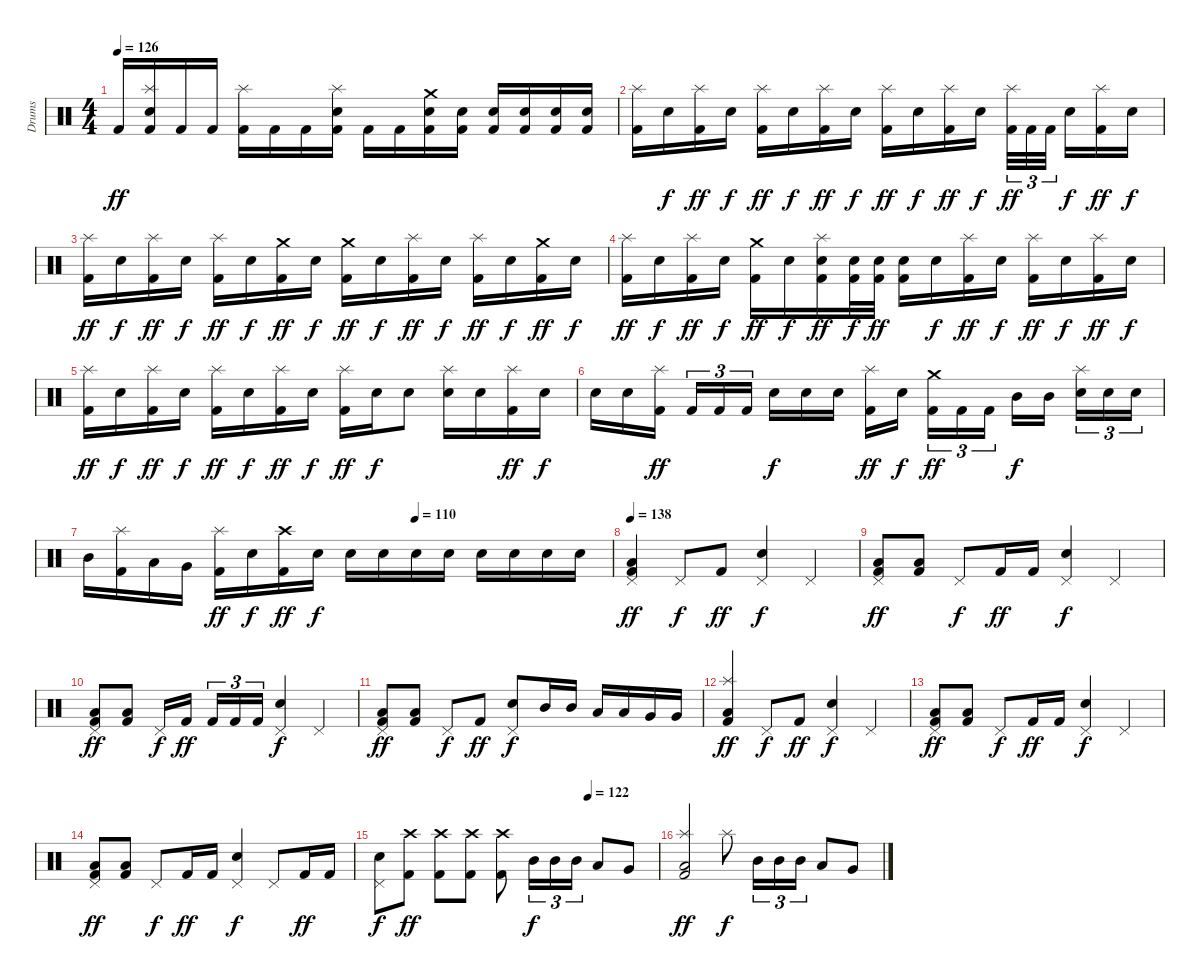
\track ("Drums" "Drums") {instrument percussion}
\staff {score}
\articulation defaults
\ts (4 4)
\tempo 126
\clef neutral
\ks c "Kick (hit) 2".16{dy ff}
("Splash (hit)" "Electric Snare (hit)" "Kick (hit) 2").16 "Kick (hit) 2".16 "Kick (hit) 2".16 ("Splash (hit)" "Kick (hit) 2").16 "Kick (hit) 2".16 "Kick (hit) 2".16 ("Splash (hit)" "Electric Snare (hit)" "Kick (hit) 2").16 "Kick (hit) 2".16 "Kick (hit) 2".16 ("Crash medium (hit)" "Electric Snare (hit)" "Kick (hit) 2").16 ("Electric Snare (hit)" "Kick (hit) 2").16 ("Electric Snare (hit)" "Kick (hit) 2").16 ("Electric Snare (hit)" "Kick (hit) 2").16 ("Electric Snare (hit)" "Kick (hit) 2").16 ("Electric Snare (hit)" "Kick (hit) 2").16 |
("Splash (hit)" "Kick (hit) 2").16 "Electric Snare (hit)".16{dy f} ("Splash (hit)" "Kick (hit) 2").16{dy ff} "Electric Snare (hit)".16{dy f} ("Splash (hit)" "Kick (hit) 2").16{dy ff} "Electric Snare (hit)".16{dy f} ("Splash (hit)" "Kick (hit) 2").16{dy ff} "Electric Snare (hit)".16{dy f} ("Splash (hit)" "Kick (hit) 2").16{dy ff} "Electric Snare (hit)".16{dy f} ("Splash (hit)" "Kick (hit) 2").16{dy ff} "Electric Snare (hit)".16{dy f} ("Splash (hit)" "Kick (hit) 2").32{tu (3 2) dy ff} "Kick (hit) 2".32{tu (3 2)} "Kick (hit) 2".32{tu (3 2)} "Electric Snare (hit)".16{dy f} ("Splash (hit)" "Kick (hit) 2").16{dy ff} "Electric Snare (hit)".16{dy f} |
("Splash (hit)" "Kick (hit) 2").16{dy ff} "Electric Snare (hit)".16{dy f} ("Splash (hit)" "Kick (hit) 2").16{dy ff} "Electric Snare (hit)".16{dy f} ("Splash (hit)" "Kick (hit) 2").16{dy ff} "Electric Snare (hit)".16{dy f} ("Crash medium (hit)" "Kick (hit) 2").16{dy ff} "Electric Snare (hit)".16{dy f} ("Crash medium (hit)" "Kick (hit) 2").16{dy ff} "Electric Snare (hit)".16{dy f} ("Splash (hit)" "Kick (hit) 2").16{dy ff} "Electric Snare (hit)".16{dy f} ("Splash (hit)" "Kick (hit) 2").16{dy ff} "Electric Snare (hit)".16{dy f} ("Crash medium (hit)" "Kick (hit) 2").16{dy ff} "Electric Snare (hit)".16{dy f} |
("Splash (hit)" "Kick (hit) 2").16{dy ff} "Electric Snare (hit)".16{dy f} ("Splash (hit)" "Kick (hit) 2").16{dy ff} "Electric Snare (hit)".16{dy f} ("Crash medium (hit)" "Kick (hit) 2").16{dy ff} "Electric Snare (hit)".16{dy f} ("Splash (hit)" "Electric Snare (hit)" "Kick (hit) 2").16{dy ff} ("Electric Snare (hit)" "Kick (hit) 2").32{dy f} ("Electric Snare (hit)" "Kick (hit) 2").32{dy ff} ("Electric Snare (hit)" "Kick (hit) 2").16 "Electric Snare (hit)".16{dy f} ("Splash (hit)" "Kick (hit) 2").16{dy ff} "Electric Snare (hit)".16{dy f} ("Splash (hit)" "Kick (hit) 2").16{dy ff} "Electric Snare (hit)".16{dy f} ("Splash (hit)" "Kick (hit) 2").16{dy ff} "Electric Snare (hit)".16{dy f} |
("Splash (hit)" "Kick (hit) 2").16{dy ff} "Electric Snare (hit)".16{dy f} ("Splash (hit)" "Kick (hit) 2").16{dy ff} "Electric Snare (hit)".16{dy f} ("Splash (hit)" "Kick (hit) 2").16{dy ff} "Electric Snare (hit)".16{dy f} ("Splash (hit)" "Kick (hit) 2").16{dy ff} "Electric Snare (hit)".16{dy f} ("Splash (hit)" "Kick (hit) 2").16{dy ff} "Electric Snare (hit)".16{dy f} "Electric Snare (hit)".8 ("Splash (hit)" "Electric Snare (hit)").16 "Electric Snare (hit)".16 ("Splash (hit)" "Kick (hit) 2").16{dy ff} "Electric Snare (hit)".16{dy f} |
"Electric Snare (hit)".16 "Electric Snare (hit)".16 ("Splash (hit)" "Kick (hit) 2").16{dy ff} "Kick (hit) 2".16{tu (3 2)} "Kick (hit) 2".16{tu (3 2)} "Kick (hit) 2".16{tu (3 2)} "Electric Snare (hit)".16{dy f} "Electric Snare (hit)".16 "Electric Snare (hit)".16 ("Splash (hit)" "Kick (hit) 2").16{dy ff} "Electric Snare (hit)".16{dy f} ("Crash medium (hit)" "Kick (hit) 2").16{tu (3 2) dy ff} "Kick (hit) 2".16{tu (3 2)} "Kick (hit) 2".16{tu (3 2)} "Mid Tom (hit)".16{dy f} "Mid Tom (hit)".16 ("Splash (hit)" "Electric Snare (hit)").16{tu (3 2)} "Electric Snare (hit)".16{tu (3 2)} "Electric Snare (hit)".16{tu (3 2)} |
\tempo (110 0.625)
"Mid Tom (hit)".16 ("Splash (hit)" "Kick (hit) 2").16 "Low Tom (hit)".16 "Very Low Tom (hit)".16 ("Splash (hit)" "Kick (hit) 2").16{dy ff} "Electric Snare (hit)".16{dy f} ("Crash high (hit)" "Kick (hit) 2").16{dy ff} "Electric Snare (hit)".16{dy f} "Electric Snare (hit)".16 "Electric Snare (hit)".16 "Electric Snare (hit)".16 "Electric Snare (hit)".16 "Electric Snare (hit)".16 "Electric Snare (hit)".16 "Electric Snare (hit)".16 "Electric Snare (hit)".16 |
\tempo 138
("Pedal Hi-Hat (hit)" "Low Floor Tom (hit)" "Kick (hit) 2").4{dy ff} "Pedal Hi-Hat (hit)".8{dy f} "Kick (hit) 2".8{dy ff} ("Pedal Hi-Hat (hit)" "Electric Snare (hit)").4{dy f} "Pedal Hi-Hat (hit)".4 |
("Pedal Hi-Hat (hit)" "Low Floor Tom (hit)" "Kick (hit) 2").8{dy ff} ("Low Floor Tom (hit)" "Kick (hit) 2").8 "Pedal Hi-Hat (hit)".8{dy f} "Kick (hit) 2".16{dy ff} "Kick (hit) 2".16 ("Pedal Hi-Hat (hit)" "Electric Snare (hit)").4{dy f} "Pedal Hi-Hat (hit)".4 |
("Pedal Hi-Hat (hit)" "Low Floor Tom (hit)" "Kick (hit) 2").8{dy ff} ("Low Floor Tom (hit)" "Kick (hit) 2").8 "Pedal Hi-Hat (hit)".16{dy f} "Kick (hit) 2".16{dy ff} "Kick (hit) 2".16{tu (3 2)} "Kick (hit) 2".16{tu (3 2)} "Kick (hit) 2".16{tu (3 2)} ("Pedal Hi-Hat (hit)" "Electric Snare (hit)").4{dy f} "Pedal Hi-Hat (hit)".4 |
("Pedal Hi-Hat (hit)" "Low Floor Tom (hit)" "Kick (hit) 2").8{dy ff} ("Low Floor Tom (hit)" "Kick (hit) 2").8 "Pedal Hi-Hat (hit)".8{dy f} "Kick (hit) 2".8{dy ff} ("Pedal Hi-Hat (hit)" "Electric Snare (hit)").8{dy f} "Mid Tom (hit)".16 "Mid Tom (hit)".16 "Low Tom (hit)".16 "Low Tom (hit)".16 "Very Low Tom (hit)".16 "Very Low Tom (hit)".16 |
("Splash (hit)" "Low Floor Tom (hit)" "Kick (hit) 2").4{dy ff} "Pedal Hi-Hat (hit)".8{dy f} "Kick (hit) 2".8{dy ff} ("Pedal Hi-Hat (hit)" "Electric Snare (hit)").4{dy f} "Pedal Hi-Hat (hit)".4 |
("Pedal Hi-Hat (hit)" "Low Floor Tom (hit)" "Kick (hit) 2").8{dy ff} ("Low Floor Tom (hit)" "Kick (hit) 2").8 "Pedal Hi-Hat (hit)".8{dy f} "Kick (hit) 2".16{dy ff} "Kick (hit) 2".16 ("Pedal Hi-Hat (hit)" "Electric Snare (hit)").4{dy f} "Pedal Hi-Hat (hit)".4 |
("Pedal Hi-Hat (hit)" "Low Floor Tom (hit)" "Kick (hit) 2").8{dy ff} ("Low Floor Tom (hit)" "Kick (hit) 2").8 "Pedal Hi-Hat (hit)".8{dy f} "Kick (hit) 2".16{dy ff} "Kick (hit) 2".16 ("Pedal Hi-Hat (hit)" "Electric Snare (hit)").4{dy f} "Pedal Hi-Hat (hit)".8 "Kick (hit) 2".16{dy ff} "Kick (hit) 2".16 |
\tempo (122 0.75)
("Pedal Hi-Hat (hit)" "Electric Snare (hit)").8{dy f} ("Crash high (hit)" "Kick (hit) 2").8{dy ff} ("Crash high (hit)" "Kick (hit) 2").8 ("Crash high (hit)" "Kick (hit) 2").8 ("Crash high (hit)" "Kick (hit) 2").8 "Mid Tom (hit)".16{tu (3 2) dy f} "Mid Tom (hit)".16{tu (3 2)} "Mid Tom (hit)".16{tu (3 2)} "Low Tom (hit)".8 "Very Low Tom (hit)".8 |
("Splash (hit)" "Low Floor Tom (hit)" "Kick (hit) 2").2{dy ff} "Splash (hit)".8{dy f} "Mid Tom (hit)".16{tu (3 2)} "Mid Tom (hit)".16{tu (3 2)} "Mid Tom (hit)".16{tu (3 2)} "Low Tom (hit)".8 "Very Low Tom (hit)".8
